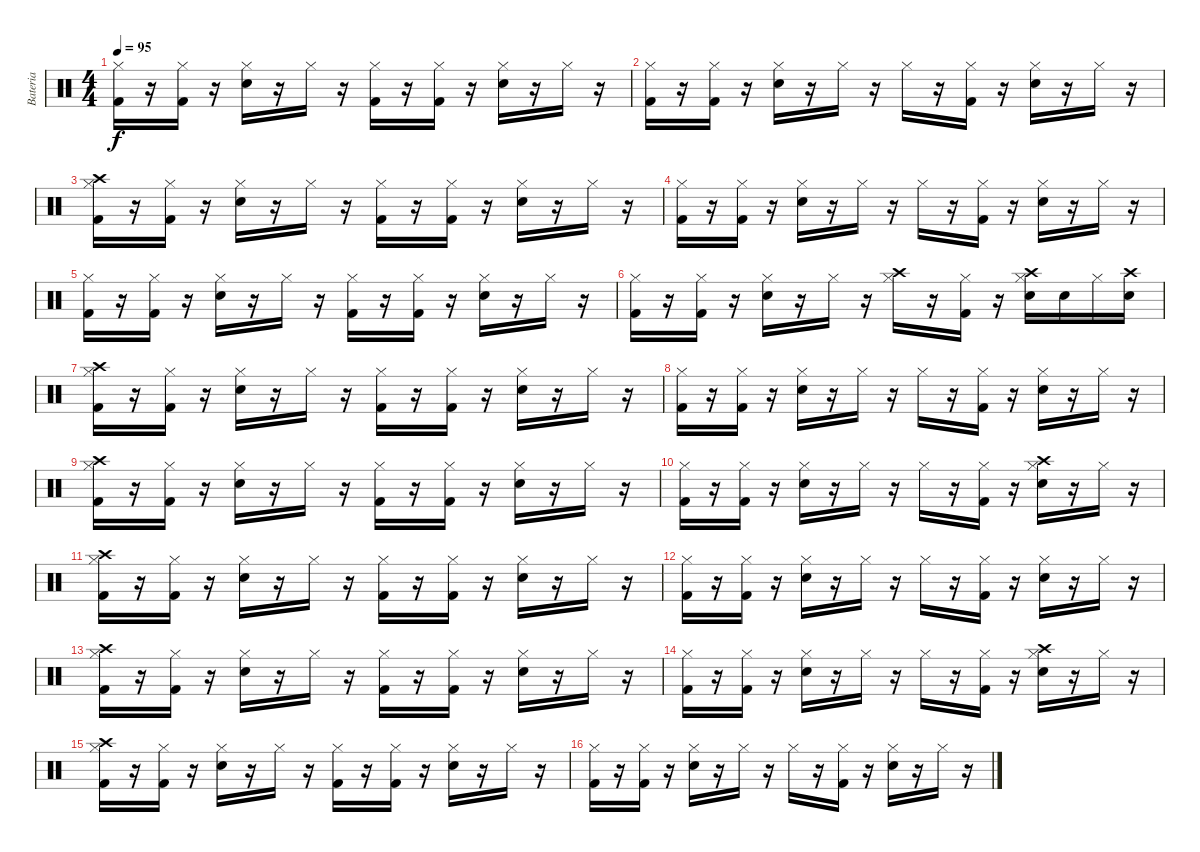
\track ("Bateria" "Bateria") {instrument percussion}
\staff {score}
\articulation defaults
\ts (4 4)
\tempo 95
\clef neutral
\ks c
("Hi-Hat (closed)" "Kick (hit) 2").16{dy f} r.16 ("Hi-Hat (closed)" "Kick (hit) 2").16 r.16 ("Hi-Hat (closed)" "Snare (hit) 2").16 r.16 "Hi-Hat (closed)".16 r.16 ("Hi-Hat (closed)" "Kick (hit) 2").16 r.16 ("Hi-Hat (closed)" "Kick (hit) 2").16 r.16 ("Hi-Hat (closed)" "Snare (hit) 2").16 r.16 "Hi-Hat (closed)".16 r.16 |
("Hi-Hat (closed)" "Kick (hit) 2").16 r.16 ("Hi-Hat (closed)" "Kick (hit) 2").16 r.16 ("Hi-Hat (closed)" "Snare (hit) 2").16 r.16 "Hi-Hat (closed)".16 r.16 "Hi-Hat (closed)".16 r.16 ("Hi-Hat (closed)" "Kick (hit) 2").16 r.16 ("Hi-Hat (closed)" "Snare (hit) 2").16 r.16 "Hi-Hat (closed)".16 r.16 |
("Crash high (hit)" "Hi-Hat (closed)" "Kick (hit) 2").16 r.16 ("Hi-Hat (closed)" "Kick (hit) 2").16 r.16 ("Hi-Hat (closed)" "Snare (hit) 2").16 r.16 "Hi-Hat (closed)".16 r.16 ("Hi-Hat (closed)" "Kick (hit) 2").16 r.16 ("Hi-Hat (closed)" "Kick (hit) 2").16 r.16 ("Hi-Hat (closed)" "Snare (hit) 2").16 r.16 "Hi-Hat (closed)".16 r.16 |
("Hi-Hat (closed)" "Kick (hit) 2").16 r.16 ("Hi-Hat (closed)" "Kick (hit) 2").16 r.16 ("Hi-Hat (closed)" "Snare (hit) 2").16 r.16 "Hi-Hat (closed)".16 r.16 "Hi-Hat (closed)".16 r.16 ("Hi-Hat (closed)" "Kick (hit) 2").16 r.16 ("Hi-Hat (closed)" "Snare (hit) 2").16 r.16 "Hi-Hat (closed)".16 r.16 |
("Hi-Hat (closed)" "Kick (hit) 2").16 r.16 ("Hi-Hat (closed)" "Kick (hit) 2").16 r.16 ("Hi-Hat (closed)" "Snare (hit) 2").16 r.16 "Hi-Hat (closed)".16 r.16 ("Hi-Hat (closed)" "Kick (hit) 2").16 r.16 ("Hi-Hat (closed)" "Kick (hit) 2").16 r.16 ("Hi-Hat (closed)" "Snare (hit) 2").16 r.16 "Hi-Hat (closed)".16 r.16 |
("Hi-Hat (closed)" "Kick (hit) 2").16 r.16 ("Hi-Hat (closed)" "Kick (hit) 2").16 r.16 ("Hi-Hat (closed)" "Snare (hit) 2").16 r.16 "Hi-Hat (closed)".16 r.16 ("Crash high (hit)" "Hi-Hat (closed)").16 r.16 ("Hi-Hat (closed)" "Kick (hit) 2").16 r.16 ("Crash high (hit)" "Hi-Hat (closed)" "Snare (hit) 2").16 "Snare (hit) 2".16 "Hi-Hat (closed)".16 ("Crash high (hit)" "Snare (hit) 2").16 |
("Crash high (hit)" "Hi-Hat (closed)" "Kick (hit) 2").16 r.16 ("Hi-Hat (closed)" "Kick (hit) 2").16 r.16 ("Hi-Hat (closed)" "Snare (hit) 2").16 r.16 "Hi-Hat (closed)".16 r.16 ("Hi-Hat (closed)" "Kick (hit) 2").16 r.16 ("Hi-Hat (closed)" "Kick (hit) 2").16 r.16 ("Hi-Hat (closed)" "Snare (hit) 2").16 r.16 "Hi-Hat (closed)".16 r.16 |
("Hi-Hat (closed)" "Kick (hit) 2").16 r.16 ("Hi-Hat (closed)" "Kick (hit) 2").16 r.16 ("Hi-Hat (closed)" "Snare (hit) 2").16 r.16 "Hi-Hat (closed)".16 r.16 "Hi-Hat (closed)".16 r.16 ("Hi-Hat (closed)" "Kick (hit) 2").16 r.16 ("Hi-Hat (closed)" "Snare (hit) 2").16 r.16 "Hi-Hat (closed)".16 r.16 |
("Crash high (hit)" "Hi-Hat (closed)" "Kick (hit) 2").16 r.16 ("Hi-Hat (closed)" "Kick (hit) 2").16 r.16 ("Hi-Hat (closed)" "Snare (hit) 2").16 r.16 "Hi-Hat (closed)".16 r.16 ("Hi-Hat (closed)" "Kick (hit) 2").16 r.16 ("Hi-Hat (closed)" "Kick (hit) 2").16 r.16 ("Hi-Hat (closed)" "Snare (hit) 2").16 r.16 "Hi-Hat (closed)".16 r.16 |
("Hi-Hat (closed)" "Kick (hit) 2").16 r.16 ("Hi-Hat (closed)" "Kick (hit) 2").16 r.16 ("Hi-Hat (closed)" "Snare (hit) 2").16 r.16 "Hi-Hat (closed)".16 r.16 "Hi-Hat (closed)".16 r.16 ("Hi-Hat (closed)" "Kick (hit) 2").16 r.16 ("Crash high (hit)" "Hi-Hat (closed)" "Snare (hit) 2").16 r.16 "Hi-Hat (closed)".16 r.16 |
("Crash high (hit)" "Hi-Hat (closed)" "Kick (hit) 2").16 r.16 ("Hi-Hat (closed)" "Kick (hit) 2").16 r.16 ("Hi-Hat (closed)" "Snare (hit) 2").16 r.16 "Hi-Hat (closed)".16 r.16 ("Hi-Hat (closed)" "Kick (hit) 2").16 r.16 ("Hi-Hat (closed)" "Kick (hit) 2").16 r.16 ("Hi-Hat (closed)" "Snare (hit) 2").16 r.16 "Hi-Hat (closed)".16 r.16 |
("Hi-Hat (closed)" "Kick (hit) 2").16 r.16 ("Hi-Hat (closed)" "Kick (hit) 2").16 r.16 ("Hi-Hat (closed)" "Snare (hit) 2").16 r.16 "Hi-Hat (closed)".16 r.16 "Hi-Hat (closed)".16 r.16 ("Hi-Hat (closed)" "Kick (hit) 2").16 r.16 ("Hi-Hat (closed)" "Snare (hit) 2").16 r.16 "Hi-Hat (closed)".16 r.16 |
("Crash high (hit)" "Hi-Hat (closed)" "Kick (hit) 2").16 r.16 ("Hi-Hat (closed)" "Kick (hit) 2").16 r.16 ("Hi-Hat (closed)" "Snare (hit) 2").16 r.16 "Hi-Hat (closed)".16 r.16 ("Hi-Hat (closed)" "Kick (hit) 2").16 r.16 ("Hi-Hat (closed)" "Kick (hit) 2").16 r.16 ("Hi-Hat (closed)" "Snare (hit) 2").16 r.16 "Hi-Hat (closed)".16 r.16 |
("Hi-Hat (closed)" "Kick (hit) 2").16 r.16 ("Hi-Hat (closed)" "Kick (hit) 2").16 r.16 ("Hi-Hat (closed)" "Snare (hit) 2").16 r.16 "Hi-Hat (closed)".16 r.16 "Hi-Hat (closed)".16 r.16 ("Hi-Hat (closed)" "Kick (hit) 2").16 r.16 ("Crash high (hit)" "Hi-Hat (closed)" "Snare (hit) 2").16 r.16 "Hi-Hat (closed)".16 r.16 |
("Crash high (hit)" "Hi-Hat (closed)" "Kick (hit) 2").16 r.16 ("Hi-Hat (closed)" "Kick (hit) 2").16 r.16 ("Hi-Hat (closed)" "Snare (hit) 2").16 r.16 "Hi-Hat (closed)".16 r.16 ("Hi-Hat (closed)" "Kick (hit) 2").16 r.16 ("Hi-Hat (closed)" "Kick (hit) 2").16 r.16 ("Hi-Hat (closed)" "Snare (hit) 2").16 r.16 "Hi-Hat (closed)".16 r.16 |
("Hi-Hat (closed)" "Kick (hit) 2").16 r.16 ("Hi-Hat (closed)" "Kick (hit) 2").16 r.16 ("Hi-Hat (closed)" "Snare (hit) 2").16 r.16 "Hi-Hat (closed)".16 r.16 "Hi-Hat (closed)".16 r.16 ("Hi-Hat (closed)" "Kick (hit) 2").16 r.16 ("Hi-Hat (closed)" "Snare (hit) 2").16 r.16 "Hi-Hat (closed)".16 r.16
